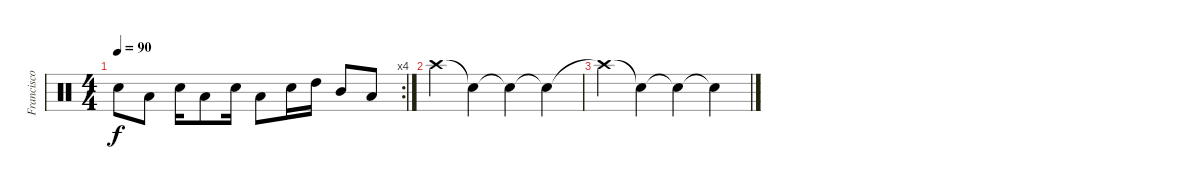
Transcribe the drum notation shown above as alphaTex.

\track ("Francisco (batería)" "Francisco ") {instrument percussion}
\staff {score}
\articulation defaults
\rc 4
\ts (4 4)
\tempo 90
\clef neutral
\ks c "Electric Snare (hit)".8{dy f} "Low Floor Tom (hit)".8 "Hand Clap (hit)".16 "Low Floor Tom (hit)".8 "Electric Snare (hit)".16 "Low Floor Tom (hit)".8 "Hand Clap (hit)".16 "High Tom (hit)".16 "Mid Tom (hit)".8 "Low Tom (hit)".8
|
"Crash high (hit)".4 "Snare (hit)"{t}.4 "Snare (hit)"{t}.4 "Snare (hit)"{t}.4 |
"Crash high (hit)"{t}.4 "Snare (hit)"{t}.4 "Snare (hit)"{t}.4 "Snare (hit)"{t}.4
